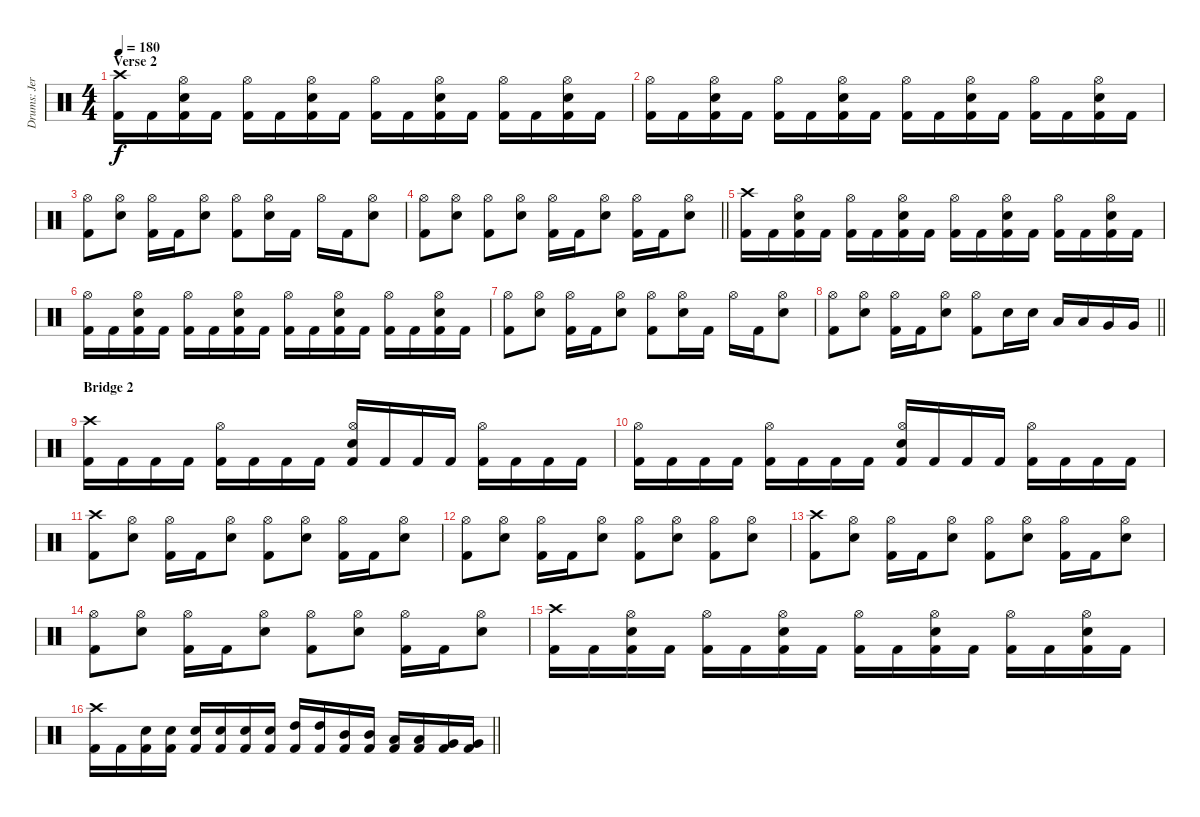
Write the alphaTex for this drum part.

\track ("Drums: Jere Luokkamäki" "Drums: Jer") {instrument percussion}
\staff {score}
\articulation defaults
\ts (4 4)
\section ("" "Verse 2")
\tempo 180
\clef neutral
\ks aminor
("Crash high (hit)" "Kick (hit) 2").16{dy f} "Kick (hit) 2".16 ("Hi-Hat (open)" "Electric Snare (hit)" "Kick (hit) 2").16 "Kick (hit) 2".16 ("Hi-Hat (open)" "Kick (hit) 2").16 "Kick (hit) 2".16 ("Hi-Hat (open)" "Electric Snare (hit)" "Kick (hit) 2").16 "Kick (hit) 2".16 ("Hi-Hat (open)" "Kick (hit) 2").16 "Kick (hit) 2".16 ("Hi-Hat (open)" "Electric Snare (hit)" "Kick (hit) 2").16 "Kick (hit) 2".16 ("Hi-Hat (open)" "Kick (hit) 2").16 "Kick (hit) 2".16 ("Hi-Hat (open)" "Electric Snare (hit)" "Kick (hit) 2").16 "Kick (hit) 2".16 |
("Hi-Hat (open)" "Kick (hit) 2").16 "Kick (hit) 2".16 ("Hi-Hat (open)" "Electric Snare (hit)" "Kick (hit) 2").16 "Kick (hit) 2".16 ("Hi-Hat (open)" "Kick (hit) 2").16 "Kick (hit) 2".16 ("Hi-Hat (open)" "Electric Snare (hit)" "Kick (hit) 2").16 "Kick (hit) 2".16 ("Hi-Hat (open)" "Kick (hit) 2").16 "Kick (hit) 2".16 ("Hi-Hat (open)" "Electric Snare (hit)" "Kick (hit) 2").16 "Kick (hit) 2".16 ("Hi-Hat (open)" "Kick (hit) 2").16 "Kick (hit) 2".16 ("Hi-Hat (open)" "Electric Snare (hit)" "Kick (hit) 2").16 "Kick (hit) 2".16 |
("Hi-Hat (open)" "Kick (hit) 2").8 ("Hi-Hat (open)" "Electric Snare (hit)").8 ("Hi-Hat (open)" "Kick (hit) 2").16 "Kick (hit) 2".16 ("Hi-Hat (open)" "Electric Snare (hit)").8 ("Hi-Hat (open)" "Kick (hit) 2").8 ("Hi-Hat (open)" "Electric Snare (hit)").16 "Kick (hit) 2".16 "Hi-Hat (open)".16 "Kick (hit) 2".16 ("Hi-Hat (open)" "Electric Snare (hit)").8 |
\barLineRight lightlight
("Hi-Hat (open)" "Kick (hit) 2").8 ("Hi-Hat (open)" "Electric Snare (hit)").8 ("Hi-Hat (open)" "Kick (hit) 2").8 ("Hi-Hat (open)" "Electric Snare (hit)").8 ("Hi-Hat (open)" "Kick (hit) 2").16 "Kick (hit) 2".16 ("Hi-Hat (open)" "Electric Snare (hit)").8 ("Hi-Hat (open)" "Kick (hit) 2").16 "Kick (hit) 2".16 ("Hi-Hat (open)" "Electric Snare (hit)").8 |
("Crash high (hit)" "Kick (hit) 2").16 "Kick (hit) 2".16 ("Hi-Hat (open)" "Electric Snare (hit)" "Kick (hit) 2").16 "Kick (hit) 2".16 ("Hi-Hat (open)" "Kick (hit) 2").16 "Kick (hit) 2".16 ("Hi-Hat (open)" "Electric Snare (hit)" "Kick (hit) 2").16 "Kick (hit) 2".16 ("Hi-Hat (open)" "Kick (hit) 2").16 "Kick (hit) 2".16 ("Hi-Hat (open)" "Electric Snare (hit)" "Kick (hit) 2").16 "Kick (hit) 2".16 ("Hi-Hat (open)" "Kick (hit) 2").16 "Kick (hit) 2".16 ("Hi-Hat (open)" "Electric Snare (hit)" "Kick (hit) 2").16 "Kick (hit) 2".16 |
("Hi-Hat (open)" "Kick (hit) 2").16 "Kick (hit) 2".16 ("Hi-Hat (open)" "Electric Snare (hit)" "Kick (hit) 2").16 "Kick (hit) 2".16 ("Hi-Hat (open)" "Kick (hit) 2").16 "Kick (hit) 2".16 ("Hi-Hat (open)" "Electric Snare (hit)" "Kick (hit) 2").16 "Kick (hit) 2".16 ("Hi-Hat (open)" "Kick (hit) 2").16 "Kick (hit) 2".16 ("Hi-Hat (open)" "Electric Snare (hit)" "Kick (hit) 2").16 "Kick (hit) 2".16 ("Hi-Hat (open)" "Kick (hit) 2").16 "Kick (hit) 2".16 ("Hi-Hat (open)" "Electric Snare (hit)" "Kick (hit) 2").16 "Kick (hit) 2".16 |
("Hi-Hat (open)" "Kick (hit) 2").8 ("Hi-Hat (open)" "Electric Snare (hit)").8 ("Hi-Hat (open)" "Kick (hit) 2").16 "Kick (hit) 2".16 ("Hi-Hat (open)" "Electric Snare (hit)").8 ("Hi-Hat (open)" "Kick (hit) 2").8 ("Hi-Hat (open)" "Electric Snare (hit)").16 "Kick (hit) 2".16 "Hi-Hat (open)".16 "Kick (hit) 2".16 ("Hi-Hat (open)" "Electric Snare (hit)").8 |
\barLineRight lightlight
("Hi-Hat (open)" "Kick (hit) 2").8 ("Hi-Hat (open)" "Electric Snare (hit)").8 ("Hi-Hat (open)" "Kick (hit) 2").16 "Kick (hit) 2".16 ("Hi-Hat (open)" "Electric Snare (hit)").8 ("Hi-Hat (open)" "Kick (hit) 2").8 "Electric Snare (hit)".16 "Electric Snare (hit)".16 "Low Tom (hit)".16 "Low Tom (hit)".16 "Very Low Tom (hit)".16 "Very Low Tom (hit)".16 |
\section ("" "Bridge 2")
("Crash high (hit)" "Kick (hit) 2").16 "Kick (hit) 2".16 "Kick (hit) 2".16 "Kick (hit) 2".16 ("Hi-Hat (open)" "Kick (hit) 2").16 "Kick (hit) 2".16 "Kick (hit) 2".16 "Kick (hit) 2".16 ("Hi-Hat (open)" "Electric Snare (hit)" "Kick (hit) 2").16 "Kick (hit) 2".16 "Kick (hit) 2".16 "Kick (hit) 2".16 ("Hi-Hat (open)" "Kick (hit) 2").16 "Kick (hit) 2".16 "Kick (hit) 2".16 "Kick (hit) 2".16 |
("Hi-Hat (open)" "Kick (hit) 2").16 "Kick (hit) 2".16 "Kick (hit) 2".16 "Kick (hit) 2".16 ("Hi-Hat (open)" "Kick (hit) 2").16 "Kick (hit) 2".16 "Kick (hit) 2".16 "Kick (hit) 2".16 ("Hi-Hat (open)" "Electric Snare (hit)" "Kick (hit) 2").16 "Kick (hit) 2".16 "Kick (hit) 2".16 "Kick (hit) 2".16 ("Hi-Hat (open)" "Kick (hit) 2").16 "Kick (hit) 2".16 "Kick (hit) 2".16 "Kick (hit) 2".16 |
("Crash high (hit)" "Kick (hit) 2").8 ("Hi-Hat (open)" "Electric Snare (hit)").8 ("Hi-Hat (open)" "Kick (hit) 2").16 "Kick (hit) 2".16 ("Hi-Hat (open)" "Electric Snare (hit)").8 ("Hi-Hat (open)" "Kick (hit) 2").8 ("Hi-Hat (open)" "Electric Snare (hit)").8 ("Hi-Hat (open)" "Kick (hit) 2").16 "Kick (hit) 2".16 ("Hi-Hat (open)" "Electric Snare (hit)").8 |
("Hi-Hat (open)" "Kick (hit) 2").8 ("Hi-Hat (open)" "Electric Snare (hit)").8 ("Hi-Hat (open)" "Kick (hit) 2").16 "Kick (hit) 2".16 ("Hi-Hat (open)" "Electric Snare (hit)").8 ("Hi-Hat (open)" "Kick (hit) 2").8 ("Hi-Hat (open)" "Electric Snare (hit)").8 ("Hi-Hat (open)" "Kick (hit) 2").8 ("Hi-Hat (open)" "Electric Snare (hit)").8 |
("Crash high (hit)" "Kick (hit) 2").8 ("Hi-Hat (open)" "Electric Snare (hit)").8 ("Hi-Hat (open)" "Kick (hit) 2").16 "Kick (hit) 2".16 ("Hi-Hat (open)" "Electric Snare (hit)").8 ("Hi-Hat (open)" "Kick (hit) 2").8 ("Hi-Hat (open)" "Electric Snare (hit)").8 ("Hi-Hat (open)" "Kick (hit) 2").16 "Kick (hit) 2".16 ("Hi-Hat (open)" "Electric Snare (hit)").8 |
("Hi-Hat (open)" "Kick (hit) 2").8 ("Hi-Hat (open)" "Electric Snare (hit)").8 ("Hi-Hat (open)" "Kick (hit) 2").16 "Kick (hit) 2".16 ("Hi-Hat (open)" "Electric Snare (hit)").8 ("Hi-Hat (open)" "Kick (hit) 2").8 ("Hi-Hat (open)" "Electric Snare (hit)").8 ("Hi-Hat (open)" "Kick (hit) 2").16 "Kick (hit) 2".16 ("Hi-Hat (open)" "Electric Snare (hit)").8 |
("Crash high (hit)" "Kick (hit) 2").16 "Kick (hit) 2".16 ("Hi-Hat (open)" "Electric Snare (hit)" "Kick (hit) 2").16 "Kick (hit) 2".16 ("Hi-Hat (open)" "Kick (hit) 2").16 "Kick (hit) 2".16 ("Hi-Hat (open)" "Electric Snare (hit)" "Kick (hit) 2").16 "Kick (hit) 2".16 ("Hi-Hat (open)" "Kick (hit) 2").16 "Kick (hit) 2".16 ("Hi-Hat (open)" "Electric Snare (hit)" "Kick (hit) 2").16 "Kick (hit) 2".16 ("Hi-Hat (open)" "Kick (hit) 2").16 "Kick (hit) 2".16 ("Hi-Hat (open)" "Electric Snare (hit)" "Kick (hit) 2").16 "Kick (hit) 2".16 |
\barLineRight lightlight
("Crash high (hit)" "Kick (hit) 2").16 "Kick (hit) 2".16 ("Electric Snare (hit)" "Kick (hit) 2").16 ("Electric Snare (hit)" "Kick (hit) 2").16 ("Electric Snare (hit)" "Kick (hit) 2").16 ("Electric Snare (hit)" "Kick (hit) 2").16 ("Electric Snare (hit)" "Kick (hit) 2").16 ("Electric Snare (hit)" "Kick (hit) 2").16 ("High Tom (hit)" "Kick (hit) 2").16 ("High Tom (hit)" "Kick (hit) 2").16 ("Mid Tom (hit)" "Kick (hit) 2").16 ("Mid Tom (hit)" "Kick (hit) 2").16 ("Low Tom (hit)" "Kick (hit) 2").16 ("Low Tom (hit)" "Kick (hit) 2").16 ("Very Low Tom (hit)" "Kick (hit) 2").16 ("Very Low Tom (hit)" "Kick (hit) 2").16
